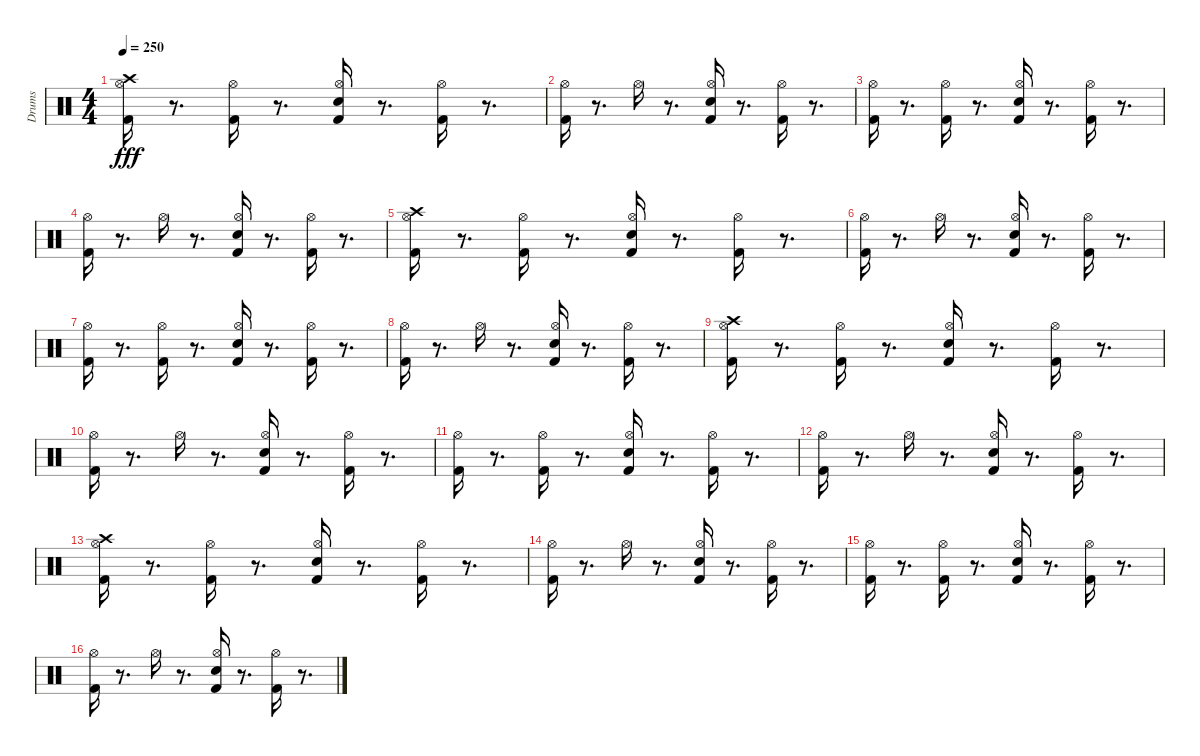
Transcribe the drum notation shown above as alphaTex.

\track ("Drums" "Drums") {instrument percussion}
\staff {score}
\articulation defaults
\ts (4 4)
\tempo 250
\clef neutral
\ks c
("Kick (hit) 2" "Hi-Hat (open)" "Crash high (hit)").16{dy fff} r.8{d} ("Kick (hit) 2" "Hi-Hat (open)").16 r.8{d} ("Kick (hit) 2" "Electric Snare (hit)" "Hi-Hat (open)").16 r.8{d} ("Kick (hit) 2" "Hi-Hat (open)").16 r.8{d} |
("Kick (hit) 2" "Hi-Hat (open)").16 r.8{d} "Hi-Hat (open)".16 r.8{d} ("Kick (hit) 2" "Electric Snare (hit)" "Hi-Hat (open)").16 r.8{d} ("Kick (hit) 2" "Hi-Hat (open)").16 r.8{d} |
("Hi-Hat (open)" "Kick (hit) 2").16 r.8{d} ("Kick (hit) 2" "Hi-Hat (open)").16 r.8{d} ("Kick (hit) 2" "Electric Snare (hit)" "Hi-Hat (open)").16 r.8{d} ("Kick (hit) 2" "Hi-Hat (open)").16 r.8{d} |
("Kick (hit) 2" "Hi-Hat (open)").16 r.8{d} "Hi-Hat (open)".16 r.8{d} ("Kick (hit) 2" "Electric Snare (hit)" "Hi-Hat (open)").16 r.8{d} ("Kick (hit) 2" "Hi-Hat (open)").16 r.8{d} |
("Kick (hit) 2" "Hi-Hat (open)" "Crash high (hit)").16 r.8{d} ("Kick (hit) 2" "Hi-Hat (open)").16 r.8{d} ("Kick (hit) 2" "Electric Snare (hit)" "Hi-Hat (open)").16 r.8{d} ("Kick (hit) 2" "Hi-Hat (open)").16 r.8{d} |
("Kick (hit) 2" "Hi-Hat (open)").16 r.8{d} "Hi-Hat (open)".16 r.8{d} ("Kick (hit) 2" "Electric Snare (hit)" "Hi-Hat (open)").16 r.8{d} ("Kick (hit) 2" "Hi-Hat (open)").16 r.8{d} |
("Hi-Hat (open)" "Kick (hit) 2").16 r.8{d} ("Kick (hit) 2" "Hi-Hat (open)").16 r.8{d} ("Kick (hit) 2" "Electric Snare (hit)" "Hi-Hat (open)").16 r.8{d} ("Kick (hit) 2" "Hi-Hat (open)").16 r.8{d} |
("Kick (hit) 2" "Hi-Hat (open)").16 r.8{d} "Hi-Hat (open)".16 r.8{d} ("Kick (hit) 2" "Electric Snare (hit)" "Hi-Hat (open)").16 r.8{d} ("Kick (hit) 2" "Hi-Hat (open)").16 r.8{d} |
("Kick (hit) 2" "Hi-Hat (open)" "Crash high (hit)").16 r.8{d} ("Kick (hit) 2" "Hi-Hat (open)").16 r.8{d} ("Kick (hit) 2" "Electric Snare (hit)" "Hi-Hat (open)").16 r.8{d} ("Kick (hit) 2" "Hi-Hat (open)").16 r.8{d} |
("Kick (hit) 2" "Hi-Hat (open)").16 r.8{d} "Hi-Hat (open)".16 r.8{d} ("Kick (hit) 2" "Electric Snare (hit)" "Hi-Hat (open)").16 r.8{d} ("Kick (hit) 2" "Hi-Hat (open)").16 r.8{d} |
("Hi-Hat (open)" "Kick (hit) 2").16 r.8{d} ("Kick (hit) 2" "Hi-Hat (open)").16 r.8{d} ("Kick (hit) 2" "Electric Snare (hit)" "Hi-Hat (open)").16 r.8{d} ("Kick (hit) 2" "Hi-Hat (open)").16 r.8{d} |
("Kick (hit) 2" "Hi-Hat (open)").16 r.8{d} "Hi-Hat (open)".16 r.8{d} ("Kick (hit) 2" "Electric Snare (hit)" "Hi-Hat (open)").16 r.8{d} ("Kick (hit) 2" "Hi-Hat (open)").16 r.8{d} |
("Kick (hit) 2" "Hi-Hat (open)" "Crash high (hit)").16 r.8{d} ("Kick (hit) 2" "Hi-Hat (open)").16 r.8{d} ("Kick (hit) 2" "Electric Snare (hit)" "Hi-Hat (open)").16 r.8{d} ("Kick (hit) 2" "Hi-Hat (open)").16 r.8{d} |
("Kick (hit) 2" "Hi-Hat (open)").16 r.8{d} "Hi-Hat (open)".16 r.8{d} ("Kick (hit) 2" "Electric Snare (hit)" "Hi-Hat (open)").16 r.8{d} ("Kick (hit) 2" "Hi-Hat (open)").16 r.8{d} |
("Hi-Hat (open)" "Kick (hit) 2").16 r.8{d} ("Kick (hit) 2" "Hi-Hat (open)").16 r.8{d} ("Kick (hit) 2" "Electric Snare (hit)" "Hi-Hat (open)").16 r.8{d} ("Kick (hit) 2" "Hi-Hat (open)").16 r.8{d} |
("Kick (hit) 2" "Hi-Hat (open)").16 r.8{d} "Hi-Hat (open)".16 r.8{d} ("Kick (hit) 2" "Electric Snare (hit)" "Hi-Hat (open)").16 r.8{d} ("Kick (hit) 2" "Hi-Hat (open)").16 r.8{d}
